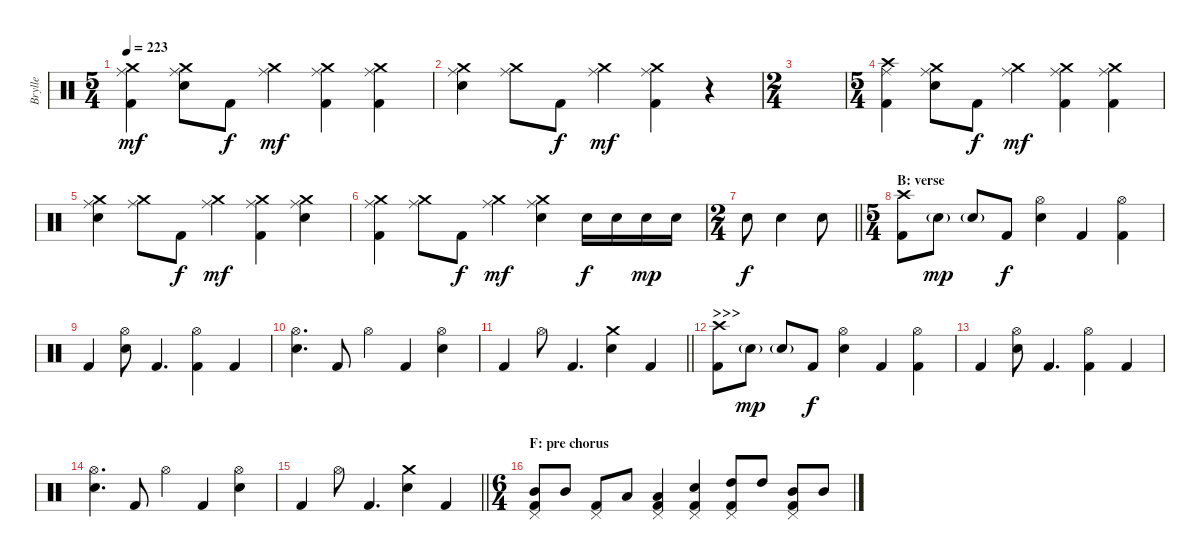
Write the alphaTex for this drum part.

\track ("Brylle" "Brylle") {instrument percussion}
\staff {score}
\articulation defaults
\ts (5 4)
\tempo 223
\clef neutral
\ks c
("Crash medium (hit)" "Ride (middle)" "Kick (hit) 2").4{dy mf} ("Crash medium (hit)" "Ride (middle)" "Electric Snare (hit)").8 "Kick (hit) 2".8{dy f} ("Crash medium (hit)" "Ride (middle)").4{dy mf} ("Crash medium (hit)" "Ride (middle)" "Kick (hit) 2").4 ("Crash medium (hit)" "Ride (middle)" "Kick (hit) 2").4 |
("Crash medium (hit)" "Ride (middle)" "Electric Snare (hit)").4 ("Crash medium (hit)" "Ride (middle)").8 "Kick (hit) 2".8{dy f} ("Crash medium (hit)" "Ride (middle)").4{dy mf} ("Crash medium (hit)" "Ride (middle)" "Kick (hit) 2").4 r.4 |
\ts (2 4)
|
\ts (5 4)
("Crash high (hit)" "Ride (middle)" "Kick (hit) 2").4 ("Crash medium (hit)" "Ride (middle)" "Electric Snare (hit)").8 "Kick (hit) 2".8{dy f} ("Crash medium (hit)" "Ride (middle)").4{dy mf} ("Crash medium (hit)" "Ride (middle)" "Kick (hit) 2").4 ("Crash medium (hit)" "Ride (middle)" "Kick (hit) 2").4 |
("Crash medium (hit)" "Ride (middle)" "Electric Snare (hit)").4 ("Crash medium (hit)" "Ride (middle)").8 "Kick (hit) 2".8{dy f} ("Crash medium (hit)" "Ride (middle)").4{dy mf} ("Crash medium (hit)" "Ride (middle)" "Kick (hit) 2").4 ("Crash medium (hit)" "Ride (middle)" "Electric Snare (hit)").4 |
("Crash medium (hit)" "Ride (middle)" "Kick (hit) 2").4 ("Crash medium (hit)" "Ride (middle)").8 "Kick (hit) 2".8{dy f} ("Crash medium (hit)" "Ride (middle)").4{dy mf} ("Crash medium (hit)" "Ride (middle)" "Electric Snare (hit)").4 "Electric Snare (hit)".16{dy f} "Electric Snare (hit)".16 "Electric Snare (hit)".16{dy mp} "Electric Snare (hit)".16 |
\ts (2 4)
\barLineRight lightlight "Electric Snare (hit)".8{dy f} "Electric Snare (hit)".4 "Electric Snare (hit)".8
|
\ts (5 4)
\section ("" "B: verse")
("Crash high (hit)" "Kick (hit) 2").8 "Electric Snare (hit)"{g}.8{dy mp} "Electric Snare (hit)"{g}.8 "Kick (hit) 2".8{dy f} ("Hi-Hat (open)" "Electric Snare (hit)").4 "Kick (hit) 2".4 ("Hi-Hat (open)" "Kick (hit) 2").4 |
"Kick (hit) 2".4 ("Hi-Hat (open)" "Electric Snare (hit)").8 "Kick (hit) 2".4{d} ("Hi-Hat (open)" "Kick (hit) 2").4 "Kick (hit) 2".4 |
("Hi-Hat (open)" "Electric Snare (hit)").4{d} "Kick (hit) 2".8 "Hi-Hat (open)".4 "Kick (hit) 2".4 ("Hi-Hat (open)" "Electric Snare (hit)").4 |
\barLineRight lightlight "Kick (hit) 2".4 "Hi-Hat (open)".8 "Kick (hit) 2".4{d}
("Crash medium (hit)" "Electric Snare (hit)").4 "Kick (hit) 2".4 |
\section ("" ">>>")
("Crash high (hit)" "Kick (hit) 2").8 "Electric Snare (hit)"{g}.8{dy mp} "Electric Snare (hit)"{g}.8 "Kick (hit) 2".8{dy f} ("Hi-Hat (open)" "Electric Snare (hit)").4 "Kick (hit) 2".4 ("Hi-Hat (open)" "Kick (hit) 2").4 |
"Kick (hit) 2".4 ("Hi-Hat (open)" "Electric Snare (hit)").8 "Kick (hit) 2".4{d} ("Hi-Hat (open)" "Kick (hit) 2").4 "Kick (hit) 2".4 |
("Hi-Hat (open)" "Electric Snare (hit)").4{d} "Kick (hit) 2".8 "Hi-Hat (open)".4 "Kick (hit) 2".4 ("Hi-Hat (open)" "Electric Snare (hit)").4 |
\barLineRight lightlight "Kick (hit) 2".4 "Hi-Hat (open)".8 "Kick (hit) 2".4{d}
("Crash medium (hit)" "Electric Snare (hit)").4 "Kick (hit) 2".4 |
\ts (6 4)
\section ("" "F: pre chorus")
("Pedal Hi-Hat (hit)" "Mid Tom (hit)" "Kick (hit) 2").8 "Mid Tom (hit)".8 ("Pedal Hi-Hat (hit)" "Kick (hit) 2").8 "Low Tom (hit)".8 ("Pedal Hi-Hat (hit)" "Low Tom (hit)" "Kick (hit) 2").4 ("Pedal Hi-Hat (hit)" "Electric Snare (hit)" "Kick (hit) 2").4 ("Pedal Hi-Hat (hit)" "High Tom (hit)" "Kick (hit) 2").8 "High Tom (hit)".8 ("Pedal Hi-Hat (hit)" "Mid Tom (hit)" "Kick (hit) 2").8 "Mid Tom (hit)".8
